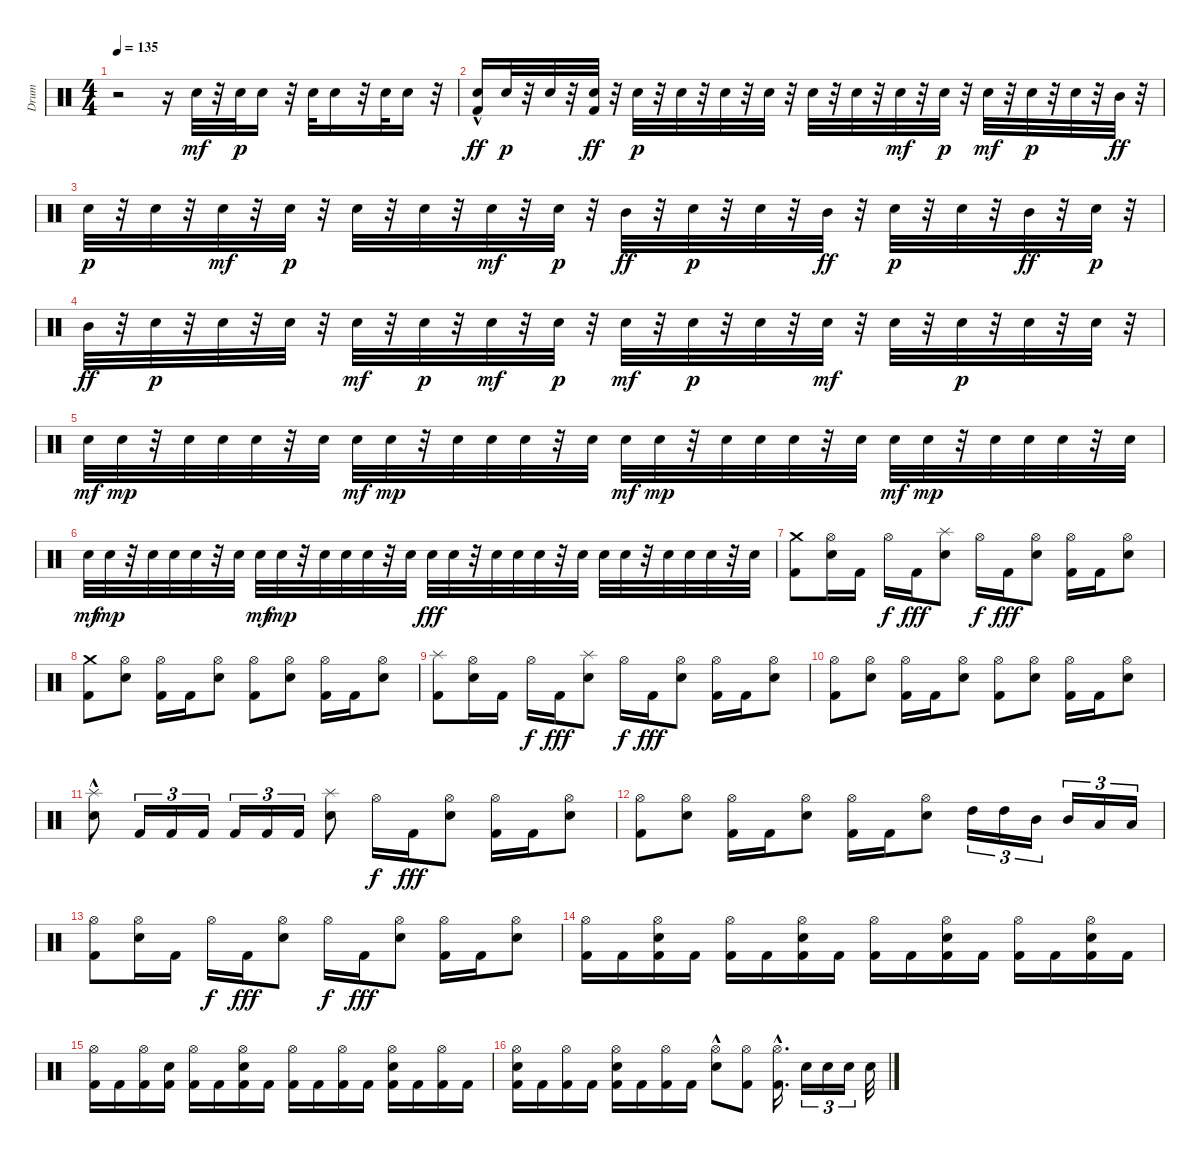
\track ("Drum" "Drum") {instrument percussion}
\staff {score}
\articulation defaults
\ts (4 4)
\tempo 135
\clef neutral
\ks c
r.2{dy mf} r.16 "Snare (hit) 2".32 r.32 "Snare (hit) 2".32{dy p} "Snare (hit) 2".16 r.32 "Snare (hit) 2".32 "Snare (hit) 2".16 r.32 "Snare (hit) 2".32 "Snare (hit) 2".16 r.32 |
("Snare (hit) 2" "Kick (hit) 2"{hac}).16{dy ff} "Snare (hit) 2".32{dy p} r.32 "Snare (hit) 2".32 r.32 ("Snare (hit) 2" "Kick (hit) 2").32{dy ff} r.32 "Snare (hit) 2".32{dy p} r.32 "Snare (hit) 2".32 r.32 "Snare (hit) 2".32 r.32 "Snare (hit) 2".32 r.32 "Snare (hit) 2".32 r.32 "Snare (hit) 2".32 r.32 "Snare (hit) 2".32{dy mf} r.32 "Snare (hit) 2".32{dy p} r.32 "Snare (hit) 2".32{dy mf} r.32 "Snare (hit) 2".32{dy p} r.32 "Snare (hit) 2".32 r.32 "Mid Tom (hit)".32{dy ff} r.32 |
"Snare (hit) 2".32{dy p} r.32 "Snare (hit) 2".32 r.32 "Snare (hit) 2".32{dy mf} r.32 "Snare (hit) 2".32{dy p} r.32 "Snare (hit) 2".32 r.32 "Snare (hit) 2".32 r.32 "Snare (hit) 2".32{dy mf} r.32 "Snare (hit) 2".32{dy p} r.32 "Mid Tom (hit)".32{dy ff} r.32 "Snare (hit) 2".32{dy p} r.32 "Snare (hit) 2".32 r.32 "Mid Tom (hit)".32{dy ff} r.32 "Snare (hit) 2".32{dy p} r.32 "Snare (hit) 2".32 r.32 "Mid Tom (hit)".32{dy ff} r.32 "Snare (hit) 2".32{dy p} r.32 |
"Mid Tom (hit)".32{dy ff} r.32 "Snare (hit) 2".32{dy p} r.32 "Snare (hit) 2".32 r.32 "Snare (hit) 2".32 r.32 "Snare (hit) 2".32{dy mf} r.32 "Snare (hit) 2".32{dy p} r.32 "Snare (hit) 2".32{dy mf} r.32 "Snare (hit) 2".32{dy p} r.32 "Snare (hit) 2".32{dy mf} r.32 "Snare (hit) 2".32{dy p} r.32 "Snare (hit) 2".32 r.32 "Snare (hit) 2".32{dy mf} r.32 "Snare (hit) 2".32 r.32 "Snare (hit) 2".32{dy p} r.32 "Snare (hit) 2".32 r.32 "Snare (hit) 2".32 r.32 |
"Snare (hit) 2".32{dy mf} "Snare (hit) 2".32{dy mp} r.32 "Snare (hit) 2".32 "Snare (hit) 2".32 "Snare (hit) 2".32 r.32 "Snare (hit) 2".32 "Snare (hit) 2".32{dy mf} "Snare (hit) 2".32{dy mp} r.32 "Snare (hit) 2".32 "Snare (hit) 2".32 "Snare (hit) 2".32 r.32 "Snare (hit) 2".32 "Snare (hit) 2".32{dy mf} "Snare (hit) 2".32{dy mp} r.32 "Snare (hit) 2".32 "Snare (hit) 2".32 "Snare (hit) 2".32 r.32 "Snare (hit) 2".32 "Snare (hit) 2".32{dy mf} "Snare (hit) 2".32{dy mp} r.32 "Snare (hit) 2".32 "Snare (hit) 2".32 "Snare (hit) 2".32 r.32 "Snare (hit) 2".32 |
"Snare (hit) 2".32{dy mf} "Snare (hit) 2".32{dy mp} r.32 "Snare (hit) 2".32 "Snare (hit) 2".32 "Snare (hit) 2".32 r.32 "Snare (hit) 2".32 "Snare (hit) 2".32{dy mf} "Snare (hit) 2".32{dy mp} r.32 "Snare (hit) 2".32 "Snare (hit) 2".32 "Snare (hit) 2".32 r.32 "Snare (hit) 2".32 "Snare (hit) 2".32{dy fff} "Snare (hit) 2".32 r.32 "Snare (hit) 2".32 "Snare (hit) 2".32 "Snare (hit) 2".32 r.32 "Snare (hit) 2".32 "Snare (hit) 2".32 "Snare (hit) 2".32 r.32 "Snare (hit) 2".32 "Snare (hit) 2".32 "Snare (hit) 2".32 r.32 "Snare (hit) 2".32 |
("Kick (hit) 2" "Crash medium (hit)").8 ("Snare (hit) 2" "Hi-Hat (open)").16 "Kick (hit) 2".16 "Hi-Hat (open)".16{dy f} "Kick (hit) 2".16{dy fff} ("Snare (hit) 2" "Splash (hit)").8 "Hi-Hat (open)".16{dy f} "Kick (hit) 2".16{dy fff} ("Snare (hit) 2" "Hi-Hat (open)").8 ("Kick (hit) 2" "Hi-Hat (open)").16 "Kick (hit) 2".16 ("Snare (hit) 2" "Hi-Hat (open)").8 |
("Kick (hit) 2" "Crash medium (hit)").8 ("Snare (hit) 2" "Hi-Hat (open)").8 ("Kick (hit) 2" "Hi-Hat (open)").16 "Kick (hit) 2".16 ("Snare (hit) 2" "Hi-Hat (open)").8 ("Kick (hit) 2" "Hi-Hat (open)").8 ("Snare (hit) 2" "Hi-Hat (open)").8 ("Kick (hit) 2" "Hi-Hat (open)").16 "Kick (hit) 2".16 ("Snare (hit) 2" "Hi-Hat (open)").8 |
("Kick (hit) 2" "Splash (hit)").8 ("Snare (hit) 2" "Hi-Hat (open)").16 "Kick (hit) 2".16 "Hi-Hat (open)".16{dy f} "Kick (hit) 2".16{dy fff} ("Snare (hit) 2" "Splash (hit)").8 "Hi-Hat (open)".16{dy f} "Kick (hit) 2".16{dy fff} ("Snare (hit) 2" "Hi-Hat (open)").8 ("Kick (hit) 2" "Hi-Hat (open)").16 "Kick (hit) 2".16 ("Snare (hit) 2" "Hi-Hat (open)").8 |
("Kick (hit) 2" "Hi-Hat (open)").8 ("Snare (hit) 2" "Hi-Hat (open)").8 ("Kick (hit) 2" "Hi-Hat (open)").16 "Kick (hit) 2".16 ("Snare (hit) 2" "Hi-Hat (open)").8 ("Kick (hit) 2" "Hi-Hat (open)").8 ("Snare (hit) 2" "Hi-Hat (open)").8 ("Kick (hit) 2" "Hi-Hat (open)").16 "Kick (hit) 2".16 ("Snare (hit) 2" "Hi-Hat (open)").8 |
("Snare (hit) 2"{hac} "Splash (hit)").8 "Kick (hit) 2".16{tu (3 2)} "Kick (hit) 2".16{tu (3 2)} "Kick (hit) 2".16{tu (3 2)} "Kick (hit) 2".16{tu (3 2)} "Kick (hit) 2".16{tu (3 2)} "Kick (hit) 2".16{tu (3 2)} ("Snare (hit) 2" "Splash (hit)").8 "Hi-Hat (open)".16{dy f} "Kick (hit) 2".16{dy fff} ("Snare (hit) 2" "Hi-Hat (open)").8 ("Kick (hit) 2" "Hi-Hat (open)").16 "Kick (hit) 2".16 ("Snare (hit) 2" "Hi-Hat (open)").8 |
("Kick (hit) 2" "Hi-Hat (open)").8 ("Snare (hit) 2" "Hi-Hat (open)").8 ("Kick (hit) 2" "Hi-Hat (open)").16 "Kick (hit) 2".16 ("Snare (hit) 2" "Hi-Hat (open)").8 ("Kick (hit) 2" "Hi-Hat (open)").16 "Kick (hit) 2".16 ("Snare (hit) 2" "Hi-Hat (open)").8 "High Tom (hit)".16{tu (3 2)} "High Tom (hit)".16{tu (3 2)} "Mid Tom (hit)".16{tu (3 2)} "Mid Tom (hit)".16{tu (3 2)} "Low Tom (hit)".16{tu (3 2)} "Low Tom (hit)".16{tu (3 2)} |
("Kick (hit) 2" "Hi-Hat (open)").8 ("Snare (hit) 2" "Hi-Hat (open)").16 "Kick (hit) 2".16 "Hi-Hat (open)".16{dy f} "Kick (hit) 2".16{dy fff} ("Snare (hit) 2" "Hi-Hat (open)").8 "Hi-Hat (open)".16{dy f} "Kick (hit) 2".16{dy fff} ("Snare (hit) 2" "Hi-Hat (open)").8 ("Kick (hit) 2" "Hi-Hat (open)").16 "Kick (hit) 2".16 ("Snare (hit) 2" "Hi-Hat (open)").8 |
("Kick (hit) 2" "Hi-Hat (open)").16 "Kick (hit) 2".16 ("Kick (hit) 2" "Snare (hit) 2" "Hi-Hat (open)").16 "Kick (hit) 2".16 ("Kick (hit) 2" "Hi-Hat (open)").16 "Kick (hit) 2".16 ("Kick (hit) 2" "Snare (hit) 2" "Hi-Hat (open)").16 "Kick (hit) 2".16 ("Kick (hit) 2" "Hi-Hat (open)").16 "Kick (hit) 2".16 ("Kick (hit) 2" "Snare (hit) 2" "Hi-Hat (open)").16 "Kick (hit) 2".16 ("Kick (hit) 2" "Hi-Hat (open)").16 "Kick (hit) 2".16 ("Kick (hit) 2" "Snare (hit) 2" "Hi-Hat (open)").16 "Kick (hit) 2".16 |
("Kick (hit) 2" "Hi-Hat (open)").16 "Kick (hit) 2".16 ("Kick (hit) 2" "Hi-Hat (open)").16 ("Kick (hit) 2" "Snare (hit) 2").16 ("Kick (hit) 2" "Hi-Hat (open)").16 "Kick (hit) 2".16 ("Kick (hit) 2" "Snare (hit) 2" "Hi-Hat (open)").16 "Kick (hit) 2".16 ("Kick (hit) 2" "Hi-Hat (open)").16 "Kick (hit) 2".16 ("Kick (hit) 2" "Hi-Hat (open)").16 "Kick (hit) 2".16 ("Kick (hit) 2" "Snare (hit) 2" "Hi-Hat (open)").16 "Kick (hit) 2".16 ("Kick (hit) 2" "Hi-Hat (open)").16 "Kick (hit) 2".16 |
("Kick (hit) 2" "Snare (hit) 2" "Hi-Hat (open)").16 "Kick (hit) 2".16 ("Kick (hit) 2" "Hi-Hat (open)").16 "Kick (hit) 2".16 ("Kick (hit) 2" "Snare (hit) 2" "Hi-Hat (open)").16 "Kick (hit) 2".16 ("Kick (hit) 2" "Hi-Hat (open)").16 "Kick (hit) 2".16 ("Snare (hit) 2"{hac} "Hi-Hat (open)").8 ("Kick (hit) 2" "Hi-Hat (open)").8 ("Kick (hit) 2"{hac} "Hi-Hat (open)"{hac}).16{d} "Snare (hit) 2".16{tu (3 2)} "Snare (hit) 2".16{tu (3 2)} "Snare (hit) 2".16{tu (3 2)} "Snare (hit) 2".32
